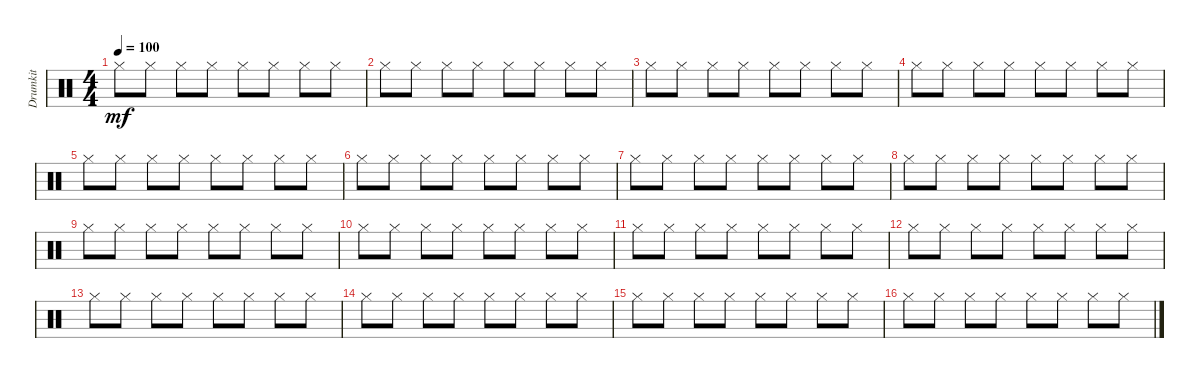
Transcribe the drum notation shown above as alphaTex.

\track ("Drumkit" "Drumkit") {instrument percussion}
\staff {score}
\articulation defaults
\ts (4 4)
\tempo 100
\clef neutral
\ks aminor "Hi-Hat (closed)".8{dy mf} "Hi-Hat (closed)".8 "Hi-Hat (closed)".8 "Hi-Hat (closed)".8 "Hi-Hat (closed)".8 "Hi-Hat (closed)".8 "Hi-Hat (closed)".8 "Hi-Hat (closed)".8
|
"Hi-Hat (closed)".8 "Hi-Hat (closed)".8 "Hi-Hat (closed)".8 "Hi-Hat (closed)".8 "Hi-Hat (closed)".8 "Hi-Hat (closed)".8 "Hi-Hat (closed)".8 "Hi-Hat (closed)".8 |
"Hi-Hat (closed)".8 "Hi-Hat (closed)".8 "Hi-Hat (closed)".8 "Hi-Hat (closed)".8 "Hi-Hat (closed)".8 "Hi-Hat (closed)".8 "Hi-Hat (closed)".8 "Hi-Hat (closed)".8 |
"Hi-Hat (closed)".8 "Hi-Hat (closed)".8 "Hi-Hat (closed)".8 "Hi-Hat (closed)".8 "Hi-Hat (closed)".8 "Hi-Hat (closed)".8 "Hi-Hat (closed)".8 "Hi-Hat (closed)".8 |
"Hi-Hat (closed)".8 "Hi-Hat (closed)".8 "Hi-Hat (closed)".8 "Hi-Hat (closed)".8 "Hi-Hat (closed)".8 "Hi-Hat (closed)".8 "Hi-Hat (closed)".8 "Hi-Hat (closed)".8 |
"Hi-Hat (closed)".8 "Hi-Hat (closed)".8 "Hi-Hat (closed)".8 "Hi-Hat (closed)".8 "Hi-Hat (closed)".8 "Hi-Hat (closed)".8 "Hi-Hat (closed)".8 "Hi-Hat (closed)".8 |
"Hi-Hat (closed)".8 "Hi-Hat (closed)".8 "Hi-Hat (closed)".8 "Hi-Hat (closed)".8 "Hi-Hat (closed)".8 "Hi-Hat (closed)".8 "Hi-Hat (closed)".8 "Hi-Hat (closed)".8 |
"Hi-Hat (closed)".8 "Hi-Hat (closed)".8 "Hi-Hat (closed)".8 "Hi-Hat (closed)".8 "Hi-Hat (closed)".8 "Hi-Hat (closed)".8 "Hi-Hat (closed)".8 "Hi-Hat (closed)".8 |
"Hi-Hat (closed)".8 "Hi-Hat (closed)".8 "Hi-Hat (closed)".8 "Hi-Hat (closed)".8 "Hi-Hat (closed)".8 "Hi-Hat (closed)".8 "Hi-Hat (closed)".8 "Hi-Hat (closed)".8 |
"Hi-Hat (closed)".8 "Hi-Hat (closed)".8 "Hi-Hat (closed)".8 "Hi-Hat (closed)".8 "Hi-Hat (closed)".8 "Hi-Hat (closed)".8 "Hi-Hat (closed)".8 "Hi-Hat (closed)".8 |
"Hi-Hat (closed)".8 "Hi-Hat (closed)".8 "Hi-Hat (closed)".8 "Hi-Hat (closed)".8 "Hi-Hat (closed)".8 "Hi-Hat (closed)".8 "Hi-Hat (closed)".8 "Hi-Hat (closed)".8 |
"Hi-Hat (closed)".8 "Hi-Hat (closed)".8 "Hi-Hat (closed)".8 "Hi-Hat (closed)".8 "Hi-Hat (closed)".8 "Hi-Hat (closed)".8 "Hi-Hat (closed)".8 "Hi-Hat (closed)".8 |
"Hi-Hat (closed)".8 "Hi-Hat (closed)".8 "Hi-Hat (closed)".8 "Hi-Hat (closed)".8 "Hi-Hat (closed)".8 "Hi-Hat (closed)".8 "Hi-Hat (closed)".8 "Hi-Hat (closed)".8 |
"Hi-Hat (closed)".8 "Hi-Hat (closed)".8 "Hi-Hat (closed)".8 "Hi-Hat (closed)".8 "Hi-Hat (closed)".8 "Hi-Hat (closed)".8 "Hi-Hat (closed)".8 "Hi-Hat (closed)".8 |
"Hi-Hat (closed)".8 "Hi-Hat (closed)".8 "Hi-Hat (closed)".8 "Hi-Hat (closed)".8 "Hi-Hat (closed)".8 "Hi-Hat (closed)".8 "Hi-Hat (closed)".8 "Hi-Hat (closed)".8 |
"Hi-Hat (closed)".8 "Hi-Hat (closed)".8 "Hi-Hat (closed)".8 "Hi-Hat (closed)".8 "Hi-Hat (closed)".8 "Hi-Hat (closed)".8 "Hi-Hat (closed)".8 "Hi-Hat (closed)".8
